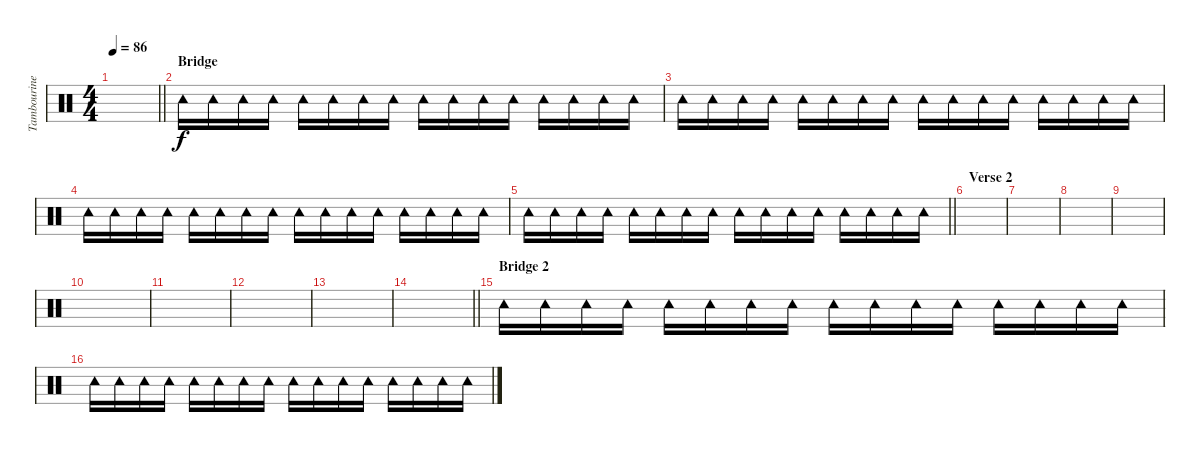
\track ("Tambourine" "Tambourine") {instrument percussion}
\staff {score}
\articulation defaults
\ts (4 4)
\tempo 86
\clef neutral
\barLineRight lightlight
\ks c
|
\section ("" "Bridge")
"Tambourine (hit)".16 "Tambourine (hit)".16 "Tambourine (hit)".16 "Tambourine (hit)".16 "Tambourine (hit)".16 "Tambourine (hit)".16 "Tambourine (hit)".16 "Tambourine (hit)".16 "Tambourine (hit)".16 "Tambourine (hit)".16 "Tambourine (hit)".16 "Tambourine (hit)".16 "Tambourine (hit)".16 "Tambourine (hit)".16 "Tambourine (hit)".16 "Tambourine (hit)".16 |
"Tambourine (hit)".16 "Tambourine (hit)".16 "Tambourine (hit)".16 "Tambourine (hit)".16 "Tambourine (hit)".16 "Tambourine (hit)".16 "Tambourine (hit)".16 "Tambourine (hit)".16 "Tambourine (hit)".16 "Tambourine (hit)".16 "Tambourine (hit)".16 "Tambourine (hit)".16 "Tambourine (hit)".16 "Tambourine (hit)".16 "Tambourine (hit)".16 "Tambourine (hit)".16 |
"Tambourine (hit)".16 "Tambourine (hit)".16 "Tambourine (hit)".16 "Tambourine (hit)".16 "Tambourine (hit)".16 "Tambourine (hit)".16 "Tambourine (hit)".16 "Tambourine (hit)".16 "Tambourine (hit)".16 "Tambourine (hit)".16 "Tambourine (hit)".16 "Tambourine (hit)".16 "Tambourine (hit)".16 "Tambourine (hit)".16 "Tambourine (hit)".16 "Tambourine (hit)".16 |
\barLineRight lightlight "Tambourine (hit)".16 "Tambourine (hit)".16 "Tambourine (hit)".16 "Tambourine (hit)".16 "Tambourine (hit)".16 "Tambourine (hit)".16 "Tambourine (hit)".16 "Tambourine (hit)".16 "Tambourine (hit)".16 "Tambourine (hit)".16 "Tambourine (hit)".16 "Tambourine (hit)".16 "Tambourine (hit)".16 "Tambourine (hit)".16 "Tambourine (hit)".16 "Tambourine (hit)".16
|
\section ("" "Verse 2")
|
|
|
|
|
|
|
|
\barLineRight lightlight
|
\section ("" "Bridge 2")
"Tambourine (hit)".16 "Tambourine (hit)".16 "Tambourine (hit)".16 "Tambourine (hit)".16 "Tambourine (hit)".16 "Tambourine (hit)".16 "Tambourine (hit)".16 "Tambourine (hit)".16 "Tambourine (hit)".16 "Tambourine (hit)".16 "Tambourine (hit)".16 "Tambourine (hit)".16 "Tambourine (hit)".16 "Tambourine (hit)".16 "Tambourine (hit)".16 "Tambourine (hit)".16 |
"Tambourine (hit)".16 "Tambourine (hit)".16 "Tambourine (hit)".16 "Tambourine (hit)".16 "Tambourine (hit)".16 "Tambourine (hit)".16 "Tambourine (hit)".16 "Tambourine (hit)".16 "Tambourine (hit)".16 "Tambourine (hit)".16 "Tambourine (hit)".16 "Tambourine (hit)".16 "Tambourine (hit)".16 "Tambourine (hit)".16 "Tambourine (hit)".16 "Tambourine (hit)".16
